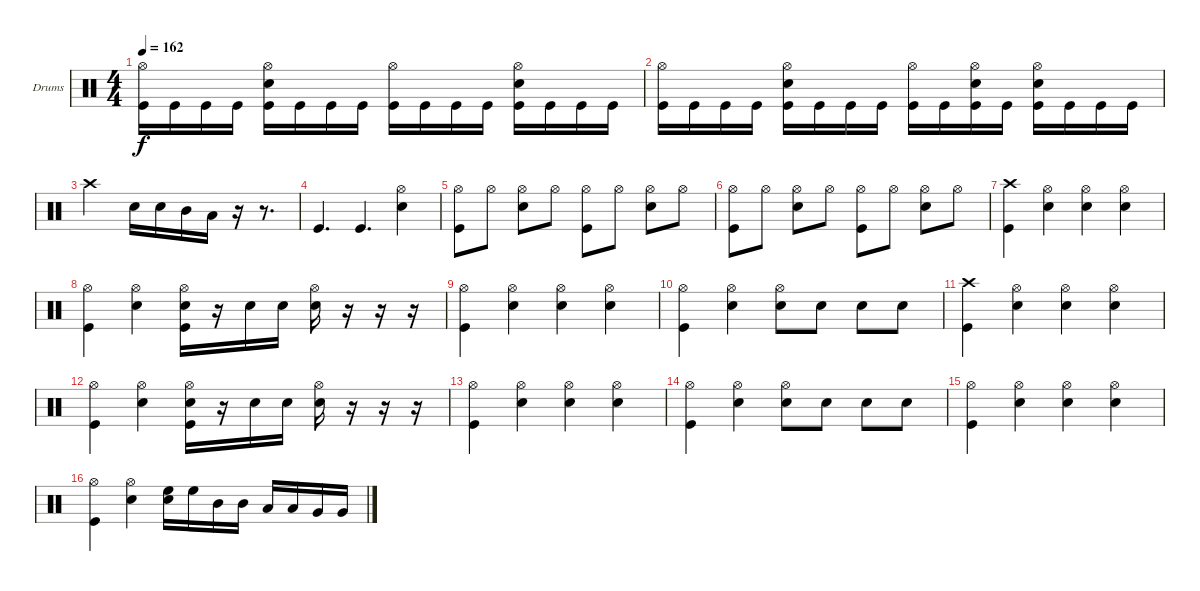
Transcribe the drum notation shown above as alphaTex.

\bracketExtendMode groupsimilarinstruments
\firstSystemTrackNameOrientation horizontal
\otherSystemsTrackNameOrientation horizontal
\track ("Drumkit" "Drums") {instrument percussion}
\staff {score}
\articulation defaults
\ts (4 4)
\tempo 162
\clef neutral
\ks c
("Hi-Hat (open)" "Kick (hit)").16{dy f} "Kick (hit)".16 "Kick (hit)".16 "Kick (hit)".16 ("Kick (hit)" "Snare (hit) 2" "Hi-Hat (open)").16 "Kick (hit)".16 "Kick (hit)".16 "Kick (hit)".16 ("Kick (hit)" "Hi-Hat (open)").16 "Kick (hit)".16 "Kick (hit)".16 "Kick (hit)".16 ("Kick (hit)" "Snare (hit) 2" "Hi-Hat (open)").16 "Kick (hit)".16 "Kick (hit)".16 "Kick (hit)".16 |
("Hi-Hat (open)" "Kick (hit)").16 "Kick (hit)".16 "Kick (hit)".16 "Kick (hit)".16 ("Kick (hit)" "Snare (hit) 2" "Hi-Hat (open)").16 "Kick (hit)".16 "Kick (hit)".16 "Kick (hit)".16 ("Kick (hit)" "Hi-Hat (open)").16 "Kick (hit)".16 ("Kick (hit)" "Snare (hit) 2" "Hi-Hat (open)").16 "Kick (hit)".16 ("Kick (hit)" "Snare (hit) 2" "Hi-Hat (open)").16 "Kick (hit)".16 "Kick (hit)".16 "Kick (hit)".16 |
"Crash high (hit)".2 "Snare (hit) 2".16 "Snare (hit) 2".16 "Mid Tom (hit)".16 "Low Tom (hit)".16 r.16 r.8{d} |
"Kick (hit)".4{d} "Kick (hit)".4{d} ("Hi-Hat (open)" "Snare (hit) 2").4 |
("Hi-Hat (open)" "Kick (hit)").8 "Hi-Hat (open)".8 ("Snare (hit) 2" "Hi-Hat (open)").8 "Hi-Hat (open)".8 ("Hi-Hat (open)" "Kick (hit)").8 "Hi-Hat (open)".8 ("Snare (hit) 2" "Hi-Hat (open)").8 "Hi-Hat (open)".8 |
("Hi-Hat (open)" "Kick (hit)").8 "Hi-Hat (open)".8 ("Snare (hit) 2" "Hi-Hat (open)").8 "Hi-Hat (open)".8 ("Hi-Hat (open)" "Kick (hit)").8 "Hi-Hat (open)".8 ("Snare (hit) 2" "Hi-Hat (open)").8 "Hi-Hat (open)".8 |
("Crash high (hit)" "Kick (hit)").4 ("Snare (hit) 2" "Hi-Hat (open)").4 ("Hi-Hat (open)" "Snare (hit) 2").4 ("Snare (hit) 2" "Hi-Hat (open)").4 |
("Hi-Hat (open)" "Kick (hit)").4 ("Hi-Hat (open)" "Snare (hit) 2").4 ("Snare (hit) 2" "Hi-Hat (open)" "Kick (hit)").16 r.16 "Snare (hit) 2".16 "Snare (hit) 2".16 ("Snare (hit) 2" "Hi-Hat (open)").16 r.16 r.16 r.16 |
("Hi-Hat (open)" "Kick (hit)").4 ("Snare (hit) 2" "Hi-Hat (open)").4 ("Hi-Hat (open)" "Snare (hit) 2").4 ("Snare (hit) 2" "Hi-Hat (open)").4 |
("Hi-Hat (open)" "Kick (hit)").4 ("Hi-Hat (open)" "Snare (hit) 2").4 ("Hi-Hat (open)" "Snare (hit) 2").8 "Snare (hit) 2".8 "Snare (hit) 2".8 "Snare (hit) 2".8 |
("Crash high (hit)" "Kick (hit)").4 ("Snare (hit) 2" "Hi-Hat (open)").4 ("Hi-Hat (open)" "Snare (hit) 2").4 ("Snare (hit) 2" "Hi-Hat (open)").4 |
("Hi-Hat (open)" "Kick (hit)").4 ("Hi-Hat (open)" "Snare (hit) 2").4 ("Snare (hit) 2" "Hi-Hat (open)" "Kick (hit)").16 r.16 "Snare (hit) 2".16 "Snare (hit) 2".16 ("Snare (hit) 2" "Hi-Hat (open)").16 r.16 r.16 r.16 |
("Hi-Hat (open)" "Kick (hit)").4 ("Snare (hit) 2" "Hi-Hat (open)").4 ("Hi-Hat (open)" "Snare (hit) 2").4 ("Snare (hit) 2" "Hi-Hat (open)").4 |
("Hi-Hat (open)" "Kick (hit)").4 ("Hi-Hat (open)" "Snare (hit) 2").4 ("Hi-Hat (open)" "Snare (hit) 2").8 "Snare (hit) 2".8 "Snare (hit) 2".8 "Snare (hit) 2".8 |
("Hi-Hat (open)" "Kick (hit)").4 ("Snare (hit) 2" "Hi-Hat (open)").4 ("Hi-Hat (open)" "Snare (hit) 2").4 ("Snare (hit) 2" "Hi-Hat (open)").4 |
("Hi-Hat (open)" "Kick (hit)").4 ("Snare (hit) 2" "Hi-Hat (open)").4 ("High Floor Tom (hit)" "Snare (hit) 2").16 "High Floor Tom (hit)".16 "Mid Tom (hit)".16 "Mid Tom (hit)".16 "Low Tom (hit)".16 "Low Tom (hit)".16 "Very Low Tom (hit)".16 "Very Low Tom (hit)".16
